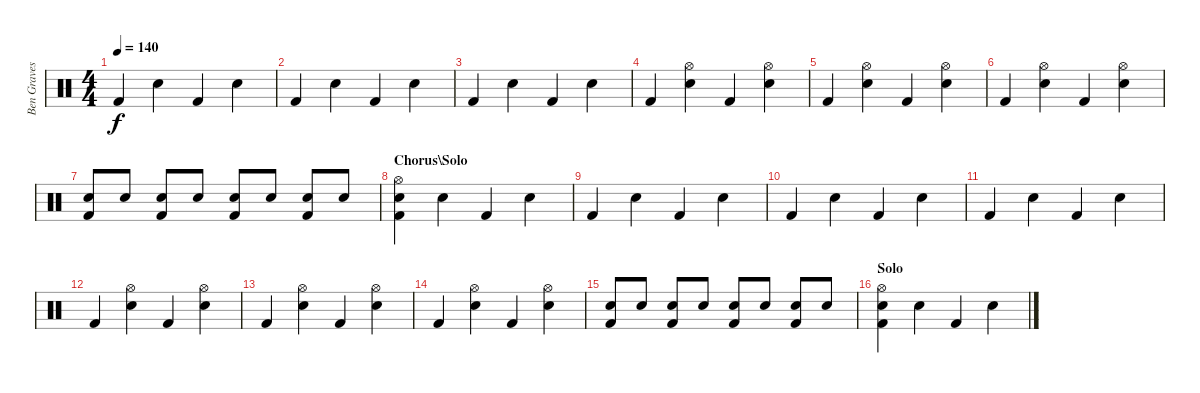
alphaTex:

\track ("Ben Graves" "Ben Graves") {instrument percussion}
\staff {score}
\articulation defaults
\ts (4 4)
\tempo 140
\clef neutral
\ks c "Kick (hit) 2".4{dy f} "Electric Snare (hit)".4 "Kick (hit) 2".4 "Electric Snare (hit)".4
|
"Kick (hit) 2".4 "Electric Snare (hit)".4 "Kick (hit) 2".4 "Electric Snare (hit)".4 |
"Kick (hit) 2".4 "Electric Snare (hit)".4 "Kick (hit) 2".4 "Electric Snare (hit)".4 |
"Kick (hit) 2".4 ("Electric Snare (hit)" "Hi-Hat (open)").4 "Kick (hit) 2".4 ("Electric Snare (hit)" "Hi-Hat (open)").4 |
"Kick (hit) 2".4 ("Electric Snare (hit)" "Hi-Hat (open)").4 "Kick (hit) 2".4 ("Electric Snare (hit)" "Hi-Hat (open)").4 |
"Kick (hit) 2".4 ("Electric Snare (hit)" "Hi-Hat (open)").4 "Kick (hit) 2".4 ("Electric Snare (hit)" "Hi-Hat (open)").4 |
("Kick (hit) 2" "Electric Snare (hit)").8 "Electric Snare (hit)".8 ("Kick (hit) 2" "Electric Snare (hit)").8 "Electric Snare (hit)".8 ("Kick (hit) 2" "Electric Snare (hit)").8 "Electric Snare (hit)".8 ("Kick (hit) 2" "Electric Snare (hit)").8 "Electric Snare (hit)".8 |
\section ("" "Chorus\\Solo")
("Kick (hit) 2" "Electric Snare (hit)" "Hi-Hat (open)").4 "Electric Snare (hit)".4 "Kick (hit) 2".4 "Electric Snare (hit)".4 |
"Kick (hit) 2".4 "Electric Snare (hit)".4 "Kick (hit) 2".4 "Electric Snare (hit)".4 |
"Kick (hit) 2".4 "Electric Snare (hit)".4 "Kick (hit) 2".4 "Electric Snare (hit)".4 |
"Kick (hit) 2".4 "Electric Snare (hit)".4 "Kick (hit) 2".4 "Electric Snare (hit)".4 |
"Kick (hit) 2".4 ("Electric Snare (hit)" "Hi-Hat (open)").4 "Kick (hit) 2".4 ("Electric Snare (hit)" "Hi-Hat (open)").4 |
"Kick (hit) 2".4 ("Electric Snare (hit)" "Hi-Hat (open)").4 "Kick (hit) 2".4 ("Electric Snare (hit)" "Hi-Hat (open)").4 |
"Kick (hit) 2".4 ("Electric Snare (hit)" "Hi-Hat (open)").4 "Kick (hit) 2".4 ("Electric Snare (hit)" "Hi-Hat (open)").4 |
("Kick (hit) 2" "Electric Snare (hit)").8 "Electric Snare (hit)".8 ("Kick (hit) 2" "Electric Snare (hit)").8 "Electric Snare (hit)".8 ("Kick (hit) 2" "Electric Snare (hit)").8 "Electric Snare (hit)".8 ("Kick (hit) 2" "Electric Snare (hit)").8 "Electric Snare (hit)".8 |
\section ("" "Solo")
("Kick (hit) 2" "Electric Snare (hit)" "Hi-Hat (open)").4 "Electric Snare (hit)".4 "Kick (hit) 2".4 "Electric Snare (hit)".4
